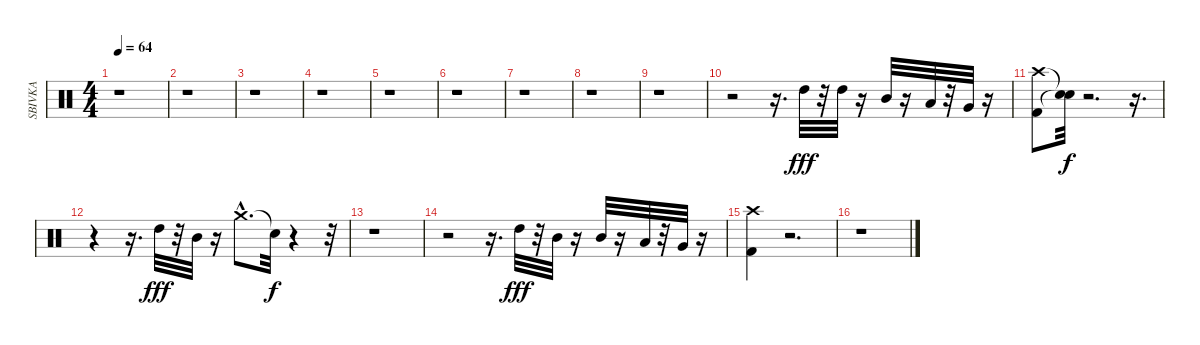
\track ("SBIVKA" "SBIVKA") {instrument percussion}
\staff {score}
\articulation defaults
\ts (4 4)
\tempo 64
\clef neutral
\ks c
r.1{dy fff} |
r.1 |
r.1 |
r.1 |
r.1 |
r.1 |
r.1 |
r.1 |
r.1 |
r.2 r.16{d} "High Tom (hit)".32 r.32 "High Tom (hit)".32 r.16 "Mid Tom (hit)".32 r.16 "Low Tom (hit)".32 r.32 "Very Low Tom (hit)".32 r.16 |
("Crash high (hit)" "Kick (hit) 2").8 ("Snare (hit)"{t} "Snare (hit)"{t}).32{dy f} r.2{d} r.16{d} |
r.4 r.16{d} "High Tom (hit)".32{dy fff} r.32 "Mid Tom (hit)".32 r.16 "Crash medium (hit)"{hac}.8{d} "Snare (hit)"{t}.32{dy f} r.4 r.32 |
r.1 |
r.2 r.16{d} "High Tom (hit)".32{dy fff} r.32 "Mid Tom (hit)".32 r.16 "Mid Tom (hit)".32 r.16 "Low Tom (hit)".32 r.32 "Very Low Tom (hit)".32 r.16 |
("Kick (hit) 2" "Crash high (hit)").4 r.2{d} |
r.1
